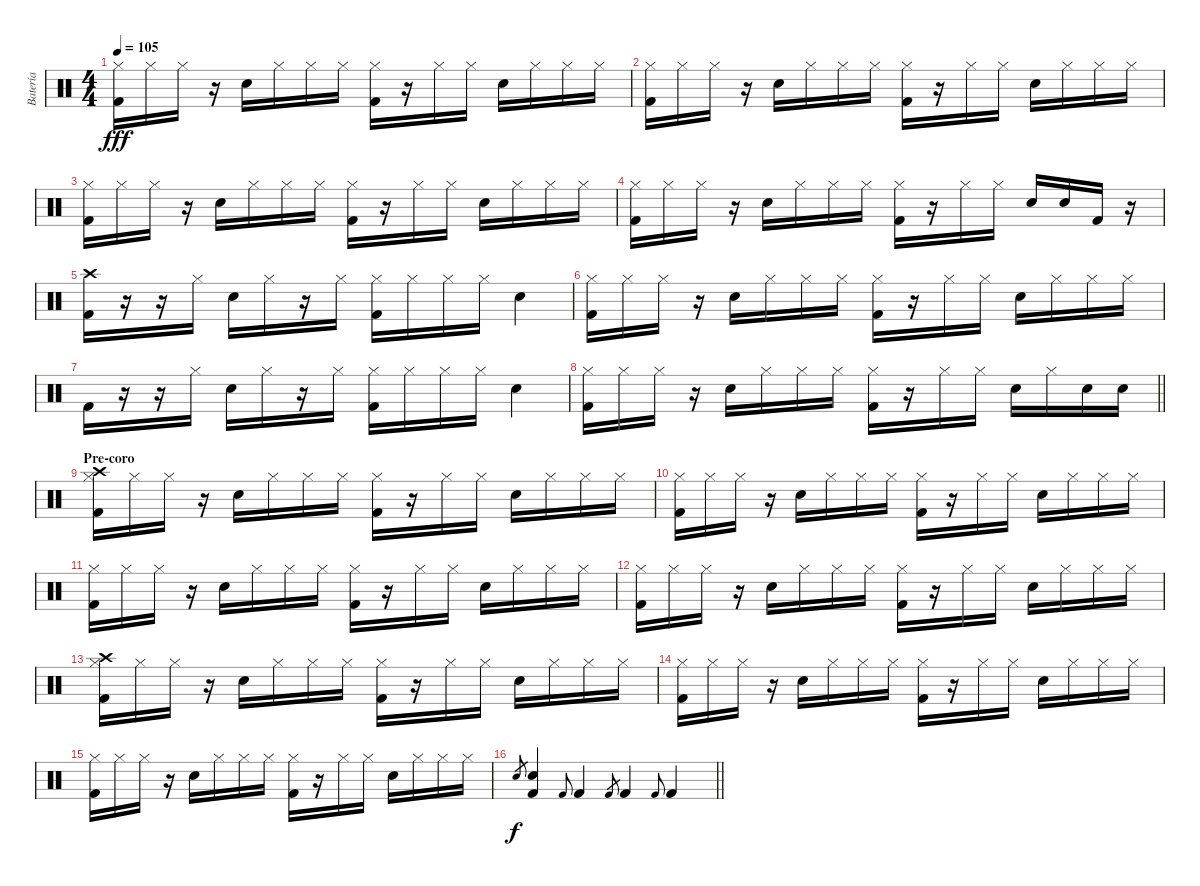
\track ("Batería" "Batería") {instrument percussion}
\staff {score}
\articulation defaults
\ts (4 4)
\tempo 105
\clef neutral
\ks c
("Hi-Hat (closed)" "Kick (hit) 2").16{dy fff} "Hi-Hat (closed)".16 "Hi-Hat (closed)".16 r.16 "Electric Snare (hit)".16 "Hi-Hat (closed)".16 "Hi-Hat (closed)".16 "Hi-Hat (closed)".16 ("Hi-Hat (closed)" "Kick (hit) 2").16 r.16 "Hi-Hat (closed)".16 "Hi-Hat (closed)".16 "Electric Snare (hit)".16 "Hi-Hat (closed)".16 "Hi-Hat (closed)".16 "Hi-Hat (closed)".16 |
("Hi-Hat (closed)" "Kick (hit) 2").16 "Hi-Hat (closed)".16 "Hi-Hat (closed)".16 r.16 "Electric Snare (hit)".16 "Hi-Hat (closed)".16 "Hi-Hat (closed)".16 "Hi-Hat (closed)".16 ("Hi-Hat (closed)" "Kick (hit) 2").16 r.16 "Hi-Hat (closed)".16 "Hi-Hat (closed)".16 "Electric Snare (hit)".16 "Hi-Hat (closed)".16 "Hi-Hat (closed)".16 "Hi-Hat (closed)".16 |
("Hi-Hat (closed)" "Kick (hit) 2").16 "Hi-Hat (closed)".16 "Hi-Hat (closed)".16 r.16 "Electric Snare (hit)".16 "Hi-Hat (closed)".16 "Hi-Hat (closed)".16 "Hi-Hat (closed)".16 ("Hi-Hat (closed)" "Kick (hit) 2").16 r.16 "Hi-Hat (closed)".16 "Hi-Hat (closed)".16 "Electric Snare (hit)".16 "Hi-Hat (closed)".16 "Hi-Hat (closed)".16 "Hi-Hat (closed)".16 |
("Hi-Hat (closed)" "Kick (hit) 2").16 "Hi-Hat (closed)".16 "Hi-Hat (closed)".16 r.16 "Electric Snare (hit)".16 "Hi-Hat (closed)".16 "Hi-Hat (closed)".16 "Hi-Hat (closed)".16 ("Hi-Hat (closed)" "Kick (hit) 2").16 r.16 "Hi-Hat (closed)".16 "Hi-Hat (closed)".16 "Snare (hit) 2".16 "Snare (hit) 2".16 "Kick (hit) 2".16 r.16 |
("Crash high (hit)" "Kick (hit) 2").16 r.16 r.16 "Hi-Hat (closed)".16 "Electric Snare (hit)".16 "Hi-Hat (closed)".16 r.16 "Hi-Hat (closed)".16 ("Hi-Hat (closed)" "Kick (hit) 2").16 "Hi-Hat (closed)".16 "Hi-Hat (closed)".16 "Hi-Hat (closed)".16 "Electric Snare (hit)".4 |
("Hi-Hat (closed)" "Kick (hit) 2").16 "Hi-Hat (closed)".16 "Hi-Hat (closed)".16 r.16 "Electric Snare (hit)".16 "Hi-Hat (closed)".16 "Hi-Hat (closed)".16 "Hi-Hat (closed)".16 ("Hi-Hat (closed)" "Kick (hit) 2").16 r.16 "Hi-Hat (closed)".16 "Hi-Hat (closed)".16 "Electric Snare (hit)".16 "Hi-Hat (closed)".16 "Hi-Hat (closed)".16 "Hi-Hat (closed)".16 |
"Kick (hit) 2".16 r.16 r.16 "Hi-Hat (closed)".16 "Electric Snare (hit)".16 "Hi-Hat (closed)".16 r.16 "Hi-Hat (closed)".16 ("Hi-Hat (closed)" "Kick (hit) 2").16 "Hi-Hat (closed)".16 "Hi-Hat (closed)".16 "Hi-Hat (closed)".16 "Electric Snare (hit)".4 |
\barLineRight lightlight
("Hi-Hat (closed)" "Kick (hit) 2").16 "Hi-Hat (closed)".16 "Hi-Hat (closed)".16 r.16 "Electric Snare (hit)".16 "Hi-Hat (closed)".16 "Hi-Hat (closed)".16 "Hi-Hat (closed)".16 ("Hi-Hat (closed)" "Kick (hit) 2").16 r.16 "Hi-Hat (closed)".16 "Hi-Hat (closed)".16 "Electric Snare (hit)".16 "Hi-Hat (closed)".16 "Electric Snare (hit)".16 "Electric Snare (hit)".16 |
\section ("" "Pre-coro")
("Crash high (hit)" "Hi-Hat (closed)" "Kick (hit) 2").16 "Hi-Hat (closed)".16 "Hi-Hat (closed)".16 r.16 "Electric Snare (hit)".16 "Hi-Hat (closed)".16 "Hi-Hat (closed)".16 "Hi-Hat (closed)".16 ("Hi-Hat (closed)" "Kick (hit) 2").16 r.16 "Hi-Hat (closed)".16 "Hi-Hat (closed)".16 "Electric Snare (hit)".16 "Hi-Hat (closed)".16 "Hi-Hat (closed)".16 "Hi-Hat (closed)".16 |
("Hi-Hat (closed)" "Kick (hit) 2").16 "Hi-Hat (closed)".16 "Hi-Hat (closed)".16 r.16 "Electric Snare (hit)".16 "Hi-Hat (closed)".16 "Hi-Hat (closed)".16 "Hi-Hat (closed)".16 ("Hi-Hat (closed)" "Kick (hit) 2").16 r.16 "Hi-Hat (closed)".16 "Hi-Hat (closed)".16 "Electric Snare (hit)".16 "Hi-Hat (closed)".16 "Hi-Hat (closed)".16 "Hi-Hat (closed)".16 |
("Hi-Hat (closed)" "Kick (hit) 2").16 "Hi-Hat (closed)".16 "Hi-Hat (closed)".16 r.16 "Electric Snare (hit)".16 "Hi-Hat (closed)".16 "Hi-Hat (closed)".16 "Hi-Hat (closed)".16 ("Hi-Hat (closed)" "Kick (hit) 2").16 r.16 "Hi-Hat (closed)".16 "Hi-Hat (closed)".16 "Electric Snare (hit)".16 "Hi-Hat (closed)".16 "Hi-Hat (closed)".16 "Hi-Hat (closed)".16 |
("Hi-Hat (closed)" "Kick (hit) 2").16 "Hi-Hat (closed)".16 "Hi-Hat (closed)".16 r.16 "Electric Snare (hit)".16 "Hi-Hat (closed)".16 "Hi-Hat (closed)".16 "Hi-Hat (closed)".16 ("Hi-Hat (closed)" "Kick (hit) 2").16 r.16 "Hi-Hat (closed)".16 "Hi-Hat (closed)".16 "Electric Snare (hit)".16 "Hi-Hat (closed)".16 "Hi-Hat (closed)".16 "Hi-Hat (closed)".16 |
("Crash high (hit)" "Hi-Hat (closed)" "Kick (hit) 2").16 "Hi-Hat (closed)".16 "Hi-Hat (closed)".16 r.16 "Electric Snare (hit)".16 "Hi-Hat (closed)".16 "Hi-Hat (closed)".16 "Hi-Hat (closed)".16 ("Hi-Hat (closed)" "Kick (hit) 2").16 r.16 "Hi-Hat (closed)".16 "Hi-Hat (closed)".16 "Electric Snare (hit)".16 "Hi-Hat (closed)".16 "Hi-Hat (closed)".16 "Hi-Hat (closed)".16 |
("Hi-Hat (closed)" "Kick (hit) 2").16 "Hi-Hat (closed)".16 "Hi-Hat (closed)".16 r.16 "Electric Snare (hit)".16 "Hi-Hat (closed)".16 "Hi-Hat (closed)".16 "Hi-Hat (closed)".16 ("Hi-Hat (closed)" "Kick (hit) 2").16 r.16 "Hi-Hat (closed)".16 "Hi-Hat (closed)".16 "Electric Snare (hit)".16 "Hi-Hat (closed)".16 "Hi-Hat (closed)".16 "Hi-Hat (closed)".16 |
("Hi-Hat (closed)" "Kick (hit) 2").16 "Hi-Hat (closed)".16 "Hi-Hat (closed)".16 r.16 "Electric Snare (hit)".16 "Hi-Hat (closed)".16 "Hi-Hat (closed)".16 "Hi-Hat (closed)".16 ("Hi-Hat (closed)" "Kick (hit) 2").16 r.16 "Hi-Hat (closed)".16 "Hi-Hat (closed)".16 "Electric Snare (hit)".16 "Hi-Hat (closed)".16 "Hi-Hat (closed)".16 "Hi-Hat (closed)".16 |
\barLineRight lightlight "Electric Snare (hit)".8{gr dy f}
("Electric Snare (hit)" "Kick (hit) 2").4 "Kick (hit) 2".8{gr onbeat} "Kick (hit) 2".4 "Kick (hit) 2".8{gr} "Kick (hit) 2".4 "Kick (hit) 2".8{gr onbeat} "Kick (hit) 2".4
